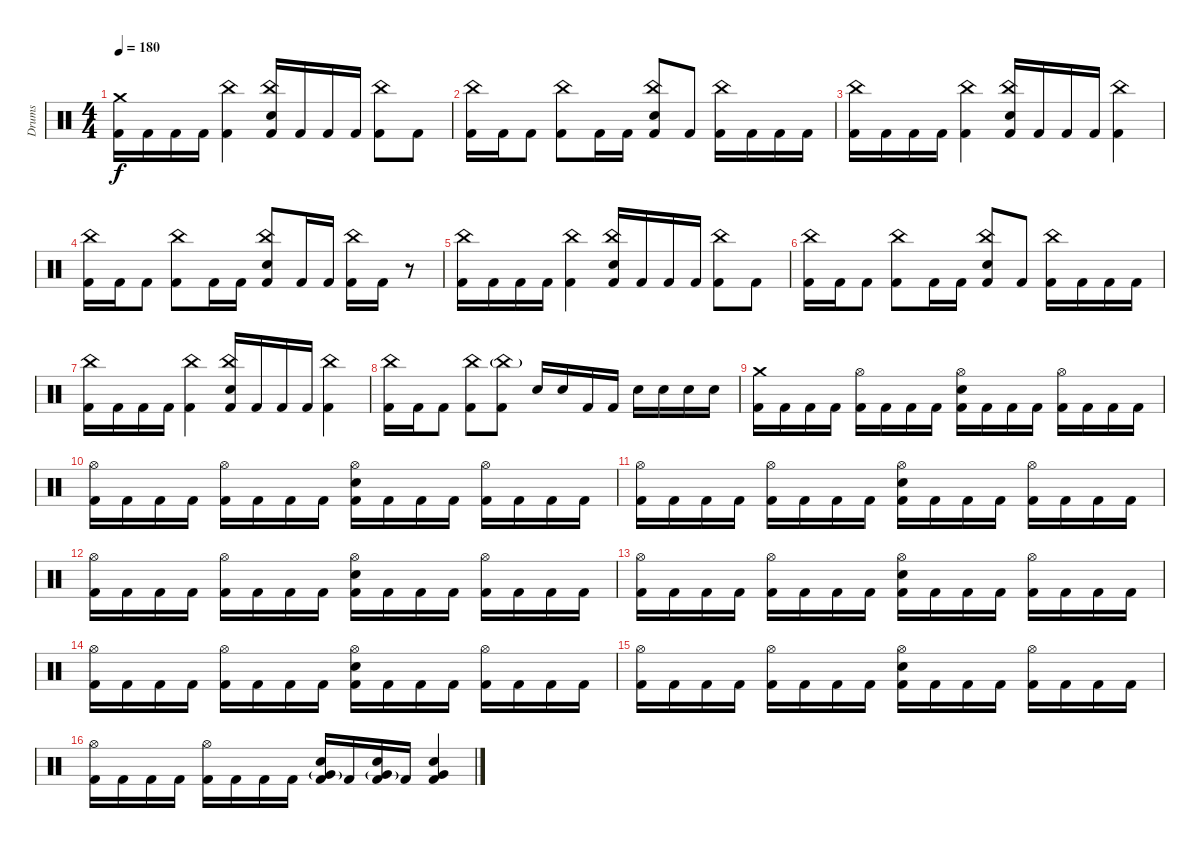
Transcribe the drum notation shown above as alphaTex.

\track ("Drums" "Drums") {instrument percussion}
\staff {score}
\articulation defaults
\ts (4 4)
\tempo 180
\clef neutral
\ks c
("Crash medium (hit)" "Kick (hit) 2").16{dy f} "Kick (hit) 2".16 "Kick (hit) 2".16 "Kick (hit) 2".16 ("China (hit)" "Kick (hit) 2").4 ("China (hit)" "Electric Snare (hit)" "Kick (hit) 2").16 "Kick (hit) 2".16 "Kick (hit) 2".16 "Kick (hit) 2".16 ("China (hit)" "Kick (hit) 2").8 "Kick (hit) 2".8 |
("China (hit)" "Kick (hit) 2").16 "Kick (hit) 2".16 "Kick (hit) 2".8 ("China (hit)" "Kick (hit) 2").8 "Kick (hit) 2".16 "Kick (hit) 2".16 ("China (hit)" "Electric Snare (hit)" "Kick (hit) 2").8 "Kick (hit) 2".8 ("China (hit)" "Kick (hit) 2").16 "Kick (hit) 2".16 "Kick (hit) 2".16 "Kick (hit) 2".16 |
("China (hit)" "Kick (hit) 2").16 "Kick (hit) 2".16 "Kick (hit) 2".16 "Kick (hit) 2".16 ("China (hit)" "Kick (hit) 2").4 ("China (hit)" "Electric Snare (hit)" "Kick (hit) 2").16 "Kick (hit) 2".16 "Kick (hit) 2".16 "Kick (hit) 2".16 ("China (hit)" "Kick (hit) 2").4 |
("China (hit)" "Kick (hit) 2").16 "Kick (hit) 2".16 "Kick (hit) 2".8 ("China (hit)" "Kick (hit) 2").8 "Kick (hit) 2".16 "Kick (hit) 2".16 ("China (hit)" "Electric Snare (hit)" "Kick (hit) 2").8 "Kick (hit) 2".16 "Kick (hit) 2".16 ("China (hit)" "Kick (hit) 2").16 "Kick (hit) 2".16 r.8 |
("China (hit)" "Kick (hit) 2").16 "Kick (hit) 2".16 "Kick (hit) 2".16 "Kick (hit) 2".16 ("China (hit)" "Kick (hit) 2").4 ("China (hit)" "Electric Snare (hit)" "Kick (hit) 2").16 "Kick (hit) 2".16 "Kick (hit) 2".16 "Kick (hit) 2".16 ("China (hit)" "Kick (hit) 2").8 "Kick (hit) 2".8 |
("China (hit)" "Kick (hit) 2").16 "Kick (hit) 2".16 "Kick (hit) 2".8 ("China (hit)" "Kick (hit) 2").8 "Kick (hit) 2".16 "Kick (hit) 2".16 ("China (hit)" "Electric Snare (hit)" "Kick (hit) 2").8 "Kick (hit) 2".8 ("China (hit)" "Kick (hit) 2").16 "Kick (hit) 2".16 "Kick (hit) 2".16 "Kick (hit) 2".16 |
("China (hit)" "Kick (hit) 2").16 "Kick (hit) 2".16 "Kick (hit) 2".16 "Kick (hit) 2".16 ("China (hit)" "Kick (hit) 2").4 ("China (hit)" "Electric Snare (hit)" "Kick (hit) 2").16 "Kick (hit) 2".16 "Kick (hit) 2".16 "Kick (hit) 2".16 ("China (hit)" "Kick (hit) 2").4 |
("China (hit)" "Kick (hit) 2").16 "Kick (hit) 2".16 "Kick (hit) 2".8 ("China (hit)" "Kick (hit) 2").8 ("China (hit)"{g} "Kick (hit) 2").8 "Electric Snare (hit)".16 "Electric Snare (hit)".16 "Kick (hit) 2".16 "Kick (hit) 2".16 "Electric Snare (hit)".16 "Electric Snare (hit)".16 "Electric Snare (hit)".16 "Electric Snare (hit)".16 |
("Crash medium (hit)" "Kick (hit) 2").16 "Kick (hit) 2".16 "Kick (hit) 2".16 "Kick (hit) 2".16 ("Hi-Hat (open)" "Kick (hit) 2").16 "Kick (hit) 2".16 "Kick (hit) 2".16 "Kick (hit) 2".16 ("Hi-Hat (open)" "Electric Snare (hit)" "Kick (hit) 2").16 "Kick (hit) 2".16 "Kick (hit) 2".16 "Kick (hit) 2".16 ("Hi-Hat (open)" "Kick (hit) 2").16 "Kick (hit) 2".16 "Kick (hit) 2".16 "Kick (hit) 2".16 |
("Hi-Hat (open)" "Kick (hit) 2").16 "Kick (hit) 2".16 "Kick (hit) 2".16 "Kick (hit) 2".16 ("Hi-Hat (open)" "Kick (hit) 2").16 "Kick (hit) 2".16 "Kick (hit) 2".16 "Kick (hit) 2".16 ("Hi-Hat (open)" "Electric Snare (hit)" "Kick (hit) 2").16 "Kick (hit) 2".16 "Kick (hit) 2".16 "Kick (hit) 2".16 ("Hi-Hat (open)" "Kick (hit) 2").16 "Kick (hit) 2".16 "Kick (hit) 2".16 "Kick (hit) 2".16 |
("Hi-Hat (open)" "Kick (hit) 2").16 "Kick (hit) 2".16 "Kick (hit) 2".16 "Kick (hit) 2".16 ("Hi-Hat (open)" "Kick (hit) 2").16 "Kick (hit) 2".16 "Kick (hit) 2".16 "Kick (hit) 2".16 ("Hi-Hat (open)" "Electric Snare (hit)" "Kick (hit) 2").16 "Kick (hit) 2".16 "Kick (hit) 2".16 "Kick (hit) 2".16 ("Hi-Hat (open)" "Kick (hit) 2").16 "Kick (hit) 2".16 "Kick (hit) 2".16 "Kick (hit) 2".16 |
("Hi-Hat (open)" "Kick (hit) 2").16 "Kick (hit) 2".16 "Kick (hit) 2".16 "Kick (hit) 2".16 ("Hi-Hat (open)" "Kick (hit) 2").16 "Kick (hit) 2".16 "Kick (hit) 2".16 "Kick (hit) 2".16 ("Hi-Hat (open)" "Electric Snare (hit)" "Kick (hit) 2").16 "Kick (hit) 2".16 "Kick (hit) 2".16 "Kick (hit) 2".16 ("Hi-Hat (open)" "Kick (hit) 2").16 "Kick (hit) 2".16 "Kick (hit) 2".16 "Kick (hit) 2".16 |
("Hi-Hat (open)" "Kick (hit) 2").16 "Kick (hit) 2".16 "Kick (hit) 2".16 "Kick (hit) 2".16 ("Hi-Hat (open)" "Kick (hit) 2").16 "Kick (hit) 2".16 "Kick (hit) 2".16 "Kick (hit) 2".16 ("Hi-Hat (open)" "Electric Snare (hit)" "Kick (hit) 2").16 "Kick (hit) 2".16 "Kick (hit) 2".16 "Kick (hit) 2".16 ("Hi-Hat (open)" "Kick (hit) 2").16 "Kick (hit) 2".16 "Kick (hit) 2".16 "Kick (hit) 2".16 |
("Hi-Hat (open)" "Kick (hit) 2").16 "Kick (hit) 2".16 "Kick (hit) 2".16 "Kick (hit) 2".16 ("Hi-Hat (open)" "Kick (hit) 2").16 "Kick (hit) 2".16 "Kick (hit) 2".16 "Kick (hit) 2".16 ("Hi-Hat (open)" "Electric Snare (hit)" "Kick (hit) 2").16 "Kick (hit) 2".16 "Kick (hit) 2".16 "Kick (hit) 2".16 ("Hi-Hat (open)" "Kick (hit) 2").16 "Kick (hit) 2".16 "Kick (hit) 2".16 "Kick (hit) 2".16 |
("Hi-Hat (open)" "Kick (hit) 2").16 "Kick (hit) 2".16 "Kick (hit) 2".16 "Kick (hit) 2".16 ("Hi-Hat (open)" "Kick (hit) 2").16 "Kick (hit) 2".16 "Kick (hit) 2".16 "Kick (hit) 2".16 ("Hi-Hat (open)" "Electric Snare (hit)" "Kick (hit) 2").16 "Kick (hit) 2".16 "Kick (hit) 2".16 "Kick (hit) 2".16 ("Hi-Hat (open)" "Kick (hit) 2").16 "Kick (hit) 2".16 "Kick (hit) 2".16 "Kick (hit) 2".16 |
("Hi-Hat (open)" "Kick (hit) 2").16 "Kick (hit) 2".16 "Kick (hit) 2".16 "Kick (hit) 2".16 ("Hi-Hat (open)" "Kick (hit) 2").16 "Kick (hit) 2".16 "Kick (hit) 2".16 "Kick (hit) 2".16 ("Very Low Tom (hit)"{g} "Electric Snare (hit)" "Kick (hit) 2").16 "Kick (hit) 2".16 ("Very Low Tom (hit)"{g} "Electric Snare (hit)" "Kick (hit) 2").16 "Kick (hit) 2".16 ("Very Low Tom (hit)" "Electric Snare (hit)" "Kick (hit) 2").4
